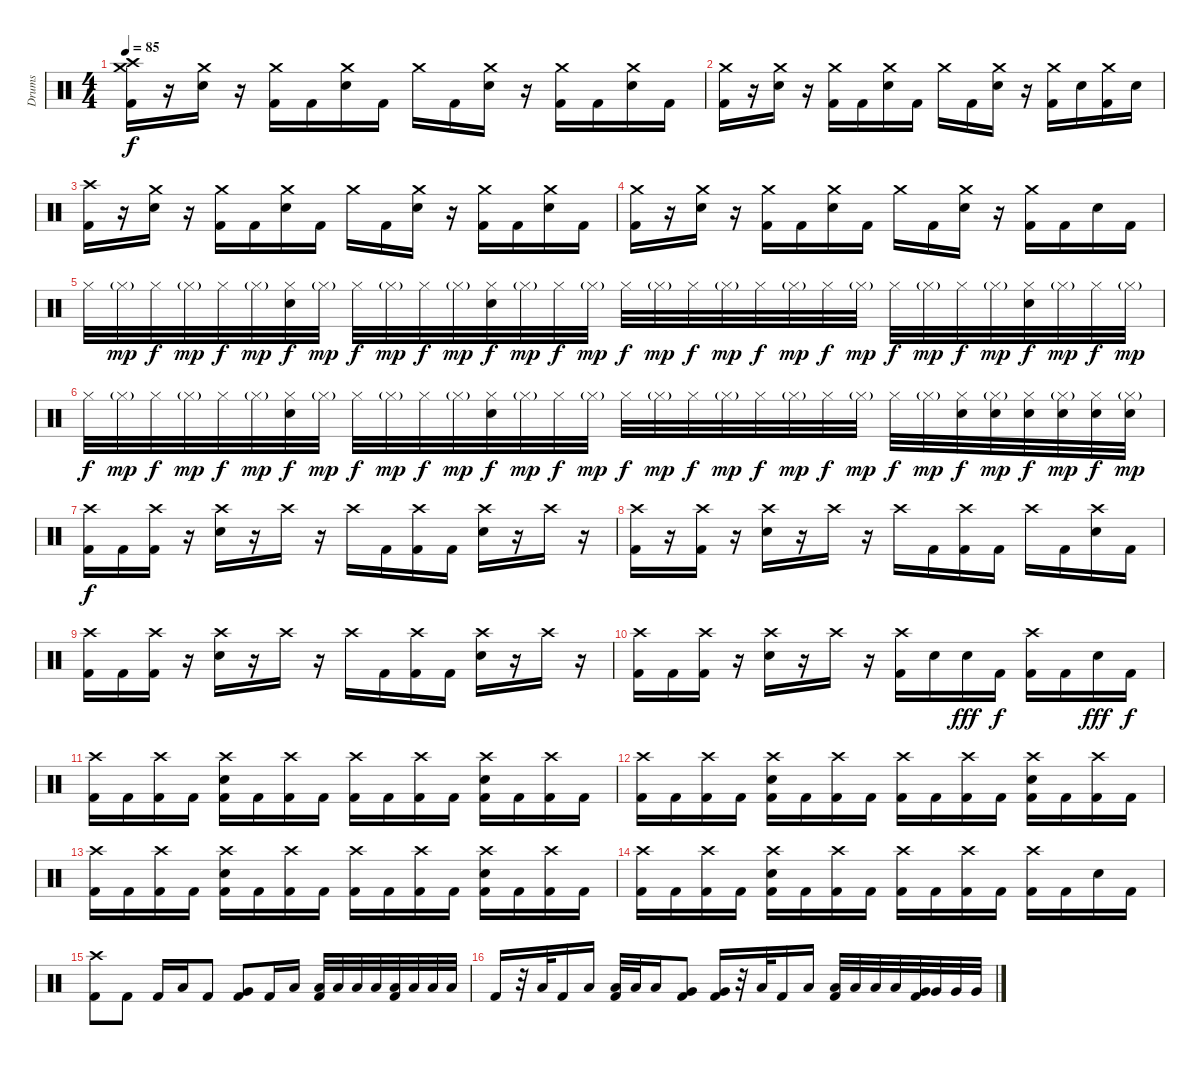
\track ("Drums" "Drums") {instrument percussion}
\staff {score}
\articulation defaults
\ts (4 4)
\tempo 85
\clef neutral
\ks c
("Crash medium (hit)" "Crash high (hit)" "Kick (hit) 2").16{dy f} r.16 ("Crash medium (hit)" "Electric Snare (hit)").16 r.16 ("Crash medium (hit)" "Kick (hit) 2").16 "Kick (hit) 2".16 ("Crash medium (hit)" "Electric Snare (hit)").16 "Kick (hit) 2".16 "Crash medium (hit)".16 "Kick (hit) 2".16 ("Crash medium (hit)" "Electric Snare (hit)").16 r.16 ("Crash medium (hit)" "Kick (hit) 2").16 "Kick (hit) 2".16 ("Crash medium (hit)" "Electric Snare (hit)").16 "Kick (hit) 2".16 |
("Crash medium (hit)" "Kick (hit) 2").16 r.16 ("Crash medium (hit)" "Electric Snare (hit)").16 r.16 ("Crash medium (hit)" "Kick (hit) 2").16 "Kick (hit) 2".16 ("Crash medium (hit)" "Electric Snare (hit)").16 "Kick (hit) 2".16 "Crash medium (hit)".16 "Kick (hit) 2".16 ("Crash medium (hit)" "Electric Snare (hit)").16 r.16 ("Crash medium (hit)" "Kick (hit) 2").16 "Electric Snare (hit)".16 ("Crash medium (hit)" "Kick (hit) 2").16 "Electric Snare (hit)".16 |
("Crash high (hit)" "Kick (hit) 2").16 r.16 ("Crash medium (hit)" "Electric Snare (hit)").16 r.16 ("Crash medium (hit)" "Kick (hit) 2").16 "Kick (hit) 2".16 ("Crash medium (hit)" "Electric Snare (hit)").16 "Kick (hit) 2".16 "Crash medium (hit)".16 "Kick (hit) 2".16 ("Crash medium (hit)" "Electric Snare (hit)").16 r.16 ("Crash medium (hit)" "Kick (hit) 2").16 "Kick (hit) 2".16 ("Crash medium (hit)" "Electric Snare (hit)").16 "Kick (hit) 2".16 |
("Crash medium (hit)" "Kick (hit) 2").16 r.16 ("Crash medium (hit)" "Electric Snare (hit)").16 r.16 ("Crash medium (hit)" "Kick (hit) 2").16 "Kick (hit) 2".16 ("Crash medium (hit)" "Electric Snare (hit)").16 "Kick (hit) 2".16 "Crash medium (hit)".16 "Kick (hit) 2".16 ("Crash medium (hit)" "Electric Snare (hit)").16 r.16 ("Crash medium (hit)" "Kick (hit) 2").16 "Kick (hit) 2".16 "Electric Snare (hit)".16 "Kick (hit) 2".16 |
"Hi-Hat (closed)".32 "Hi-Hat (closed)"{g}.32{dy mp} "Hi-Hat (closed)".32{dy f} "Hi-Hat (closed)"{g}.32{dy mp} "Hi-Hat (closed)".32{dy f} "Hi-Hat (closed)"{g}.32{dy mp} ("Hi-Hat (closed)" "Electric Snare (hit)").32{dy f} "Hi-Hat (closed)"{g}.32{dy mp} "Hi-Hat (closed)".32{dy f} "Hi-Hat (closed)"{g}.32{dy mp} "Hi-Hat (closed)".32{dy f} "Hi-Hat (closed)"{g}.32{dy mp} ("Hi-Hat (closed)" "Electric Snare (hit)").32{dy f} "Hi-Hat (closed)"{g}.32{dy mp} "Hi-Hat (closed)".32{dy f} "Hi-Hat (closed)"{g}.32{dy mp} "Hi-Hat (closed)".32{dy f} "Hi-Hat (closed)"{g}.32{dy mp} "Hi-Hat (closed)".32{dy f} "Hi-Hat (closed)"{g}.32{dy mp} "Hi-Hat (closed)".32{dy f} "Hi-Hat (closed)"{g}.32{dy mp} "Hi-Hat (closed)".32{dy f} "Hi-Hat (closed)"{g}.32{dy mp} "Hi-Hat (closed)".32{dy f} "Hi-Hat (closed)"{g}.32{dy mp} "Hi-Hat (closed)".32{dy f} "Hi-Hat (closed)"{g}.32{dy mp} ("Hi-Hat (closed)" "Electric Snare (hit)").32{dy f} "Hi-Hat (closed)"{g}.32{dy mp} "Hi-Hat (closed)".32{dy f} "Hi-Hat (closed)"{g}.32{dy mp} |
"Hi-Hat (closed)".32{dy f} "Hi-Hat (closed)"{g}.32{dy mp} "Hi-Hat (closed)".32{dy f} "Hi-Hat (closed)"{g}.32{dy mp} "Hi-Hat (closed)".32{dy f} "Hi-Hat (closed)"{g}.32{dy mp} ("Hi-Hat (closed)" "Electric Snare (hit)").32{dy f} "Hi-Hat (closed)"{g}.32{dy mp} "Hi-Hat (closed)".32{dy f} "Hi-Hat (closed)"{g}.32{dy mp} "Hi-Hat (closed)".32{dy f} "Hi-Hat (closed)"{g}.32{dy mp} ("Hi-Hat (closed)" "Electric Snare (hit)").32{dy f} "Hi-Hat (closed)"{g}.32{dy mp} "Hi-Hat (closed)".32{dy f} "Hi-Hat (closed)"{g}.32{dy mp} "Hi-Hat (closed)".32{dy f} "Hi-Hat (closed)"{g}.32{dy mp} "Hi-Hat (closed)".32{dy f} "Hi-Hat (closed)"{g}.32{dy mp} "Hi-Hat (closed)".32{dy f} "Hi-Hat (closed)"{g}.32{dy mp} "Hi-Hat (closed)".32{dy f} "Hi-Hat (closed)"{g}.32{dy mp} "Hi-Hat (closed)".32{dy f} "Hi-Hat (closed)"{g}.32{dy mp} ("Hi-Hat (closed)" "Electric Snare (hit)").32{dy f} ("Hi-Hat (closed)"{g} "Electric Snare (hit)").32{dy mp} ("Hi-Hat (closed)" "Electric Snare (hit)").32{dy f} ("Hi-Hat (closed)"{g} "Electric Snare (hit)").32{dy mp} ("Hi-Hat (closed)" "Electric Snare (hit)").32{dy f} ("Hi-Hat (closed)"{g} "Electric Snare (hit)").32{dy mp} |
("Crash high (hit)" "Kick (hit) 2").16{dy f} "Kick (hit) 2".16 ("Crash high (hit)" "Kick (hit) 2").16 r.16 ("Crash high (hit)" "Electric Snare (hit)").16 r.16 "Crash high (hit)".16 r.16 "Crash high (hit)".16 "Kick (hit) 2".16 ("Crash high (hit)" "Kick (hit) 2").16 "Kick (hit) 2".16 ("Crash high (hit)" "Electric Snare (hit)").16 r.16 "Crash high (hit)".16 r.16 |
("Crash high (hit)" "Kick (hit) 2").16 r.16 ("Crash high (hit)" "Kick (hit) 2").16 r.16 ("Crash high (hit)" "Electric Snare (hit)").16 r.16 "Crash high (hit)".16 r.16 "Crash high (hit)".16 "Kick (hit) 2".16 ("Crash high (hit)" "Kick (hit) 2").16 "Kick (hit) 2".16 "Crash high (hit)".16 "Kick (hit) 2".16 ("Crash high (hit)" "Electric Snare (hit)").16 "Kick (hit) 2".16 |
("Crash high (hit)" "Kick (hit) 2").16 "Kick (hit) 2".16 ("Crash high (hit)" "Kick (hit) 2").16 r.16 ("Crash high (hit)" "Electric Snare (hit)").16 r.16 "Crash high (hit)".16 r.16 "Crash high (hit)".16 "Kick (hit) 2".16 ("Crash high (hit)" "Kick (hit) 2").16 "Kick (hit) 2".16 ("Crash high (hit)" "Electric Snare (hit)").16 r.16 "Crash high (hit)".16 r.16 |
("Crash high (hit)" "Kick (hit) 2").16 "Kick (hit) 2".16 ("Crash high (hit)" "Kick (hit) 2").16 r.16 ("Crash high (hit)" "Electric Snare (hit)").16 r.16 "Crash high (hit)".16 r.16 ("Crash high (hit)" "Kick (hit) 2").16 "Electric Snare (hit)".16 "Electric Snare (hit)".16{dy fff} "Kick (hit) 2".16{dy f} ("Crash high (hit)" "Kick (hit) 2").16 "Kick (hit) 2".16 "Electric Snare (hit)".16{dy fff} "Kick (hit) 2".16{dy f} |
("Crash high (hit)" "Kick (hit) 2").16 "Kick (hit) 2".16 ("Crash high (hit)" "Kick (hit) 2").16 "Kick (hit) 2".16 ("Crash high (hit)" "Electric Snare (hit)" "Kick (hit) 2").16 "Kick (hit) 2".16 ("Crash high (hit)" "Kick (hit) 2").16 "Kick (hit) 2".16 ("Crash high (hit)" "Kick (hit) 2").16 "Kick (hit) 2".16 ("Crash high (hit)" "Kick (hit) 2").16 "Kick (hit) 2".16 ("Crash high (hit)" "Electric Snare (hit)" "Kick (hit) 2").16 "Kick (hit) 2".16 ("Crash high (hit)" "Kick (hit) 2").16 "Kick (hit) 2".16 |
("Crash high (hit)" "Kick (hit) 2").16 "Kick (hit) 2".16 ("Crash high (hit)" "Kick (hit) 2").16 "Kick (hit) 2".16 ("Crash high (hit)" "Electric Snare (hit)" "Kick (hit) 2").16 "Kick (hit) 2".16 ("Crash high (hit)" "Kick (hit) 2").16 "Kick (hit) 2".16 ("Crash high (hit)" "Kick (hit) 2").16 "Kick (hit) 2".16 ("Crash high (hit)" "Kick (hit) 2").16 "Kick (hit) 2".16 ("Crash high (hit)" "Electric Snare (hit)" "Kick (hit) 2").16 "Kick (hit) 2".16 ("Crash high (hit)" "Kick (hit) 2").16 "Kick (hit) 2".16 |
("Crash high (hit)" "Kick (hit) 2").16 "Kick (hit) 2".16 ("Crash high (hit)" "Kick (hit) 2").16 "Kick (hit) 2".16 ("Crash high (hit)" "Electric Snare (hit)" "Kick (hit) 2").16 "Kick (hit) 2".16 ("Crash high (hit)" "Kick (hit) 2").16 "Kick (hit) 2".16 ("Crash high (hit)" "Kick (hit) 2").16 "Kick (hit) 2".16 ("Crash high (hit)" "Kick (hit) 2").16 "Kick (hit) 2".16 ("Crash high (hit)" "Electric Snare (hit)" "Kick (hit) 2").16 "Kick (hit) 2".16 ("Crash high (hit)" "Kick (hit) 2").16 "Kick (hit) 2".16 |
("Crash high (hit)" "Kick (hit) 2").16 "Kick (hit) 2".16 ("Crash high (hit)" "Kick (hit) 2").16 "Kick (hit) 2".16 ("Crash high (hit)" "Electric Snare (hit)" "Kick (hit) 2").16 "Kick (hit) 2".16 ("Crash high (hit)" "Kick (hit) 2").16 "Kick (hit) 2".16 ("Crash high (hit)" "Kick (hit) 2").16 "Kick (hit) 2".16 ("Crash high (hit)" "Kick (hit) 2").16 "Kick (hit) 2".16 ("Crash high (hit)" "Kick (hit) 2").16 "Kick (hit) 2".16 "Electric Snare (hit)".16 "Kick (hit) 2".16 |
("Crash high (hit)" "Kick (hit) 2").8 "Kick (hit) 2".8 "Kick (hit) 2".16 "Low Tom (hit)".16 "Kick (hit) 2".8 ("Very Low Tom (hit)" "Kick (hit) 2").8 "Kick (hit) 2".16 "Low Tom (hit)".16 ("Low Tom (hit)" "Kick (hit) 2").32 "Low Tom (hit)".32 "Low Tom (hit)".32 "Low Tom (hit)".32 ("Low Floor Tom (hit)" "Kick (hit) 2").32 "Low Floor Tom (hit)".32 "Low Floor Tom (hit)".32 "Low Floor Tom (hit)".32 |
"Kick (hit) 2".16 r.32 "Low Tom (hit)".32 "Kick (hit) 2".16 "Low Tom (hit)".16 ("Low Tom (hit)" "Kick (hit) 2").32 "Low Tom (hit)".32 "Low Tom (hit)".16 ("Very Low Tom (hit)" "Kick (hit) 2").8 ("Very Low Tom (hit)" "Kick (hit) 2").16 r.32 "Low Tom (hit)".32 "Kick (hit) 2".16 "Low Tom (hit)".16 ("Low Tom (hit)" "Kick (hit) 2").32 "Low Tom (hit)".32 "Low Tom (hit)".32 "Low Tom (hit)".32 ("Very Low Tom (hit)" "Kick (hit) 2").32 "Very Low Tom (hit)".32 "Very Low Tom (hit)".32 "Very Low Tom (hit)".32
